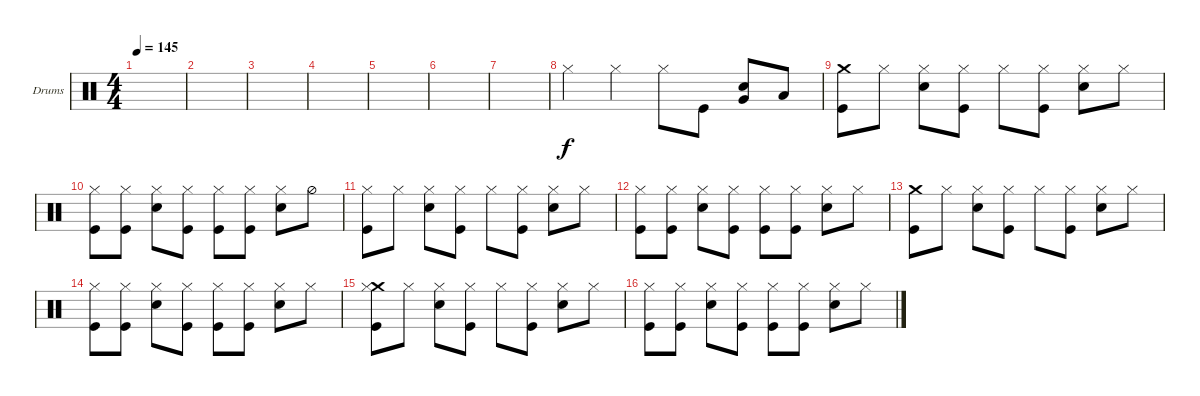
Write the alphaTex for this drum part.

\defaultSystemsLayout 4
\bracketExtendMode groupsimilarinstruments
\firstSystemTrackNameOrientation horizontal
\otherSystemsTrackNameOrientation horizontal
\track ("Nikola" "Drums") {instrument percussion}
\staff {score}
\articulation defaults
\ts (4 4)
\tempo 145
\clef neutral
\ks c
|
|
|
|
|
|
|
"Hi-Hat (closed)".4 "Hi-Hat (closed)".4 "Hi-Hat (closed)".8 "Kick (hit)".8 ("Snare (hit) 2" "Very Low Tom (hit)").8 "Low Tom (hit)".8 |
("Crash medium (hit)" "Kick (hit)").8{dy f} "Hi-Hat (closed)".8 ("Hi-Hat (closed)" "Snare (hit) 2").8 ("Kick (hit)" "Hi-Hat (closed)").8 "Hi-Hat (closed)".8 ("Kick (hit)" "Hi-Hat (closed)").8 ("Hi-Hat (closed)" "Snare (hit) 2").8 "Hi-Hat (closed)".8 |
("Hi-Hat (closed)" "Kick (hit)").8 ("Kick (hit)" "Hi-Hat (closed)").8 ("Hi-Hat (closed)" "Snare (hit) 2").8 ("Hi-Hat (closed)" "Kick (hit)").8 ("Hi-Hat (closed)" "Kick (hit)").8 ("Kick (hit)" "Hi-Hat (closed)").8 ("Hi-Hat (closed)" "Snare (hit) 2").8 "Hi-Hat (half)".8 |
("Kick (hit)" "Hi-Hat (closed)").8 "Hi-Hat (closed)".8 ("Hi-Hat (closed)" "Snare (hit) 2").8 ("Kick (hit)" "Hi-Hat (closed)").8 "Hi-Hat (closed)".8 ("Kick (hit)" "Hi-Hat (closed)").8 ("Hi-Hat (closed)" "Snare (hit) 2").8 "Hi-Hat (closed)".8 |
("Hi-Hat (closed)" "Kick (hit)").8 ("Kick (hit)" "Hi-Hat (closed)").8 ("Hi-Hat (closed)" "Snare (hit) 2").8 ("Hi-Hat (closed)" "Kick (hit)").8 ("Hi-Hat (closed)" "Kick (hit)").8 ("Kick (hit)" "Hi-Hat (closed)").8 ("Hi-Hat (closed)" "Snare (hit) 2").8 "Hi-Hat (closed)".8 |
("Crash medium (hit)" "Kick (hit)").8 "Hi-Hat (closed)".8 ("Hi-Hat (closed)" "Snare (hit) 2").8 ("Kick (hit)" "Hi-Hat (closed)").8 "Hi-Hat (closed)".8 ("Kick (hit)" "Hi-Hat (closed)").8 ("Hi-Hat (closed)" "Snare (hit) 2").8 "Hi-Hat (closed)".8 |
("Hi-Hat (closed)" "Kick (hit)").8 ("Kick (hit)" "Hi-Hat (closed)").8 ("Hi-Hat (closed)" "Snare (hit) 2").8 ("Hi-Hat (closed)" "Kick (hit)").8 ("Hi-Hat (closed)" "Kick (hit)").8 ("Kick (hit)" "Hi-Hat (closed)").8 ("Hi-Hat (closed)" "Snare (hit) 2").8 "Hi-Hat (closed)".8 |
("Crash medium (hit)" "Kick (hit)" "Hi-Hat (closed)").8 "Hi-Hat (closed)".8 ("Hi-Hat (closed)" "Snare (hit) 2").8 ("Kick (hit)" "Hi-Hat (closed)").8 "Hi-Hat (closed)".8 ("Kick (hit)" "Hi-Hat (closed)").8 ("Hi-Hat (closed)" "Snare (hit) 2").8 "Hi-Hat (closed)".8 |
("Hi-Hat (closed)" "Kick (hit)").8 ("Kick (hit)" "Hi-Hat (closed)").8 ("Hi-Hat (closed)" "Snare (hit) 2").8 ("Hi-Hat (closed)" "Kick (hit)").8 ("Hi-Hat (closed)" "Kick (hit)").8 ("Kick (hit)" "Hi-Hat (closed)").8 ("Hi-Hat (closed)" "Snare (hit) 2").8 "Hi-Hat (closed)".8
